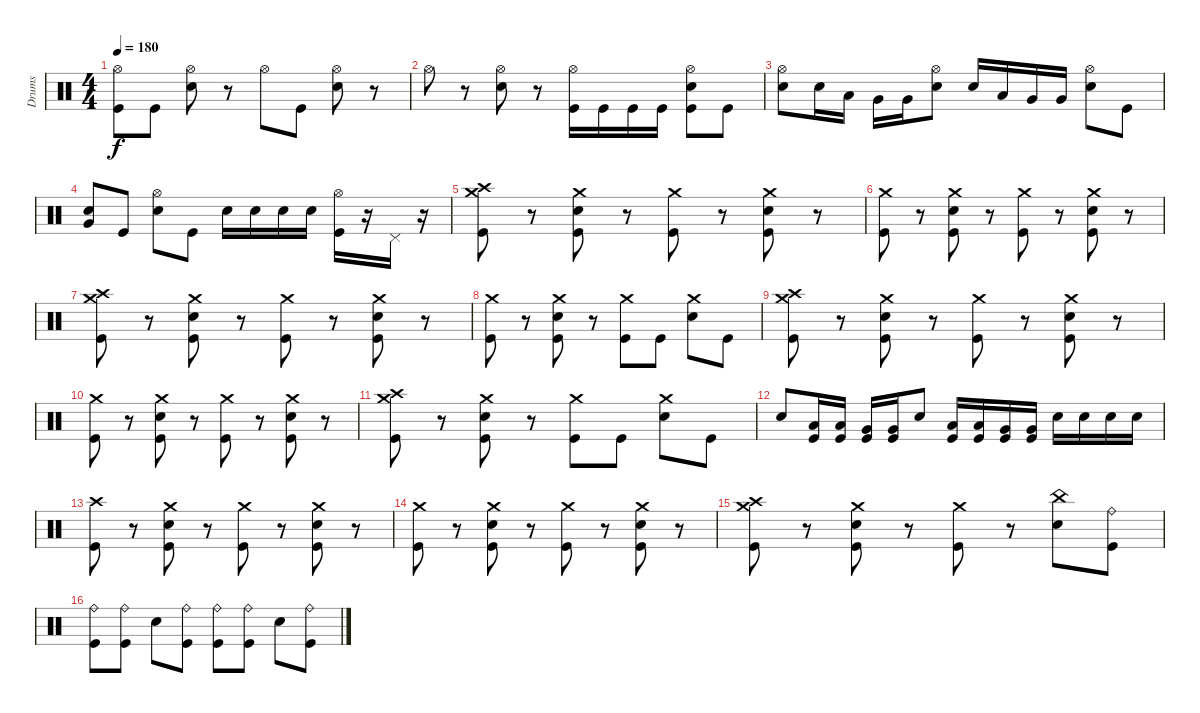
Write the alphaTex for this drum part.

\track ("Drums" "Drums") {instrument percussion}
\staff {score}
\articulation defaults
\ts (4 4)
\tempo 180
\clef neutral
\ks c
("Hi-Hat (open)" "Kick (hit)").8{dy f} "Kick (hit)".8 ("Hi-Hat (open)" "Snare (hit) 2").8 r.8 "Hi-Hat (open)".8 "Kick (hit)".8 ("Hi-Hat (open)" "Snare (hit) 2").8 r.8 |
"Hi-Hat (open)".8 r.8 ("Hi-Hat (open)" "Snare (hit) 2").8 r.8 ("Hi-Hat (open)" "Kick (hit)").16 "Kick (hit)".16 "Kick (hit)".16 "Kick (hit)".16 ("Hi-Hat (open)" "Snare (hit) 2" "Kick (hit)").8 "Kick (hit)".8 |
("Snare (hit) 2" "Hi-Hat (open)").8 "Snare (hit) 2".16 "Low Tom (hit)".16 "Very Low Tom (hit)".16 "Very Low Tom (hit)".16 ("Snare (hit) 2" "Hi-Hat (open)").8 "Snare (hit) 2".16 "Low Tom (hit)".16 "Very Low Tom (hit)".16 "Very Low Tom (hit)".16 ("Snare (hit) 2" "Hi-Hat (open)").8 "Kick (hit)".8 |
("Snare (hit) 2" "Very Low Tom (hit)").8 "Kick (hit)".8 ("Hi-Hat (open)" "Snare (hit) 2").8 "Kick (hit)".8 "Snare (hit) 2".16 "Snare (hit) 2".16 "Snare (hit) 2".16 "Snare (hit) 2".16 ("Hi-Hat (open)" "Kick (hit)").16 r.16 "Pedal Hi-Hat (hit)".16 r.16 |
("Crash high (hit)" "Crash medium (hit)" "Kick (hit)").8 r.8 ("Kick (hit)" "Snare (hit) 2" "Crash medium (hit)").8 r.8 ("Crash medium (hit)" "Kick (hit)").8 r.8 ("Crash medium (hit)" "Kick (hit)" "Snare (hit) 2").8 r.8 |
("Crash medium (hit)" "Kick (hit)").8 r.8 ("Kick (hit)" "Snare (hit) 2" "Crash medium (hit)").8 r.8 ("Crash medium (hit)" "Kick (hit)").8 r.8 ("Crash medium (hit)" "Kick (hit)" "Snare (hit) 2").8 r.8 |
("Crash high (hit)" "Crash medium (hit)" "Kick (hit)").8 r.8 ("Kick (hit)" "Snare (hit) 2" "Crash medium (hit)").8 r.8 ("Crash medium (hit)" "Kick (hit)").8 r.8 ("Crash medium (hit)" "Kick (hit)" "Snare (hit) 2").8 r.8 |
("Crash medium (hit)" "Kick (hit)").8 r.8 ("Kick (hit)" "Snare (hit) 2" "Crash medium (hit)").8 r.8 ("Crash medium (hit)" "Kick (hit)").8 "Kick (hit)".8 ("Crash medium (hit)" "Snare (hit) 2").8 "Kick (hit)".8 |
("Crash high (hit)" "Crash medium (hit)" "Kick (hit)").8 r.8 ("Kick (hit)" "Snare (hit) 2" "Crash medium (hit)").8 r.8 ("Crash medium (hit)" "Kick (hit)").8 r.8 ("Crash medium (hit)" "Kick (hit)" "Snare (hit) 2").8 r.8 |
("Crash medium (hit)" "Kick (hit)").8 r.8 ("Kick (hit)" "Snare (hit) 2" "Crash medium (hit)").8 r.8 ("Crash medium (hit)" "Kick (hit)").8 r.8 ("Crash medium (hit)" "Kick (hit)" "Snare (hit) 2").8 r.8 |
("Crash high (hit)" "Crash medium (hit)" "Kick (hit)").8 r.8 ("Kick (hit)" "Snare (hit) 2" "Crash medium (hit)").8 r.8 ("Crash medium (hit)" "Kick (hit)").8 "Kick (hit)".8 ("Crash medium (hit)" "Snare (hit) 2").8 "Kick (hit)".8 |
"Snare (hit) 2".8 ("Low Tom (hit)" "Kick (hit)").16 ("Low Tom (hit)" "Kick (hit)").16 ("Very Low Tom (hit)" "Kick (hit)").16 ("Very Low Tom (hit)" "Kick (hit)").16 "Snare (hit) 2".8 ("Low Tom (hit)" "Kick (hit)").16 ("Low Tom (hit)" "Kick (hit)").16 ("Very Low Tom (hit)" "Kick (hit)").16 ("Very Low Tom (hit)" "Kick (hit)").16 "Snare (hit) 2".16 "Snare (hit) 2".16 "Snare (hit) 2".16 "Snare (hit) 2".16 |
("Crash high (hit)" "Kick (hit)").8 r.8 ("Kick (hit)" "Snare (hit) 2" "Crash medium (hit)").8 r.8 ("Crash medium (hit)" "Kick (hit)").8 r.8 ("Crash medium (hit)" "Kick (hit)" "Snare (hit) 2").8 r.8 |
("Crash medium (hit)" "Kick (hit)").8 r.8 ("Kick (hit)" "Snare (hit) 2" "Crash medium (hit)").8 r.8 ("Crash medium (hit)" "Kick (hit)").8 r.8 ("Crash medium (hit)" "Kick (hit)" "Snare (hit) 2").8 r.8 |
("Crash high (hit)" "Crash medium (hit)" "Kick (hit)").8 r.8 ("Kick (hit)" "Snare (hit) 2" "Crash medium (hit)").8 r.8 ("Crash medium (hit)" "Kick (hit)").8 r.8 ("China (hit)" "Snare (hit) 2").8 ("Ride (bell)" "Kick (hit)").8 |
("Kick (hit)" "Ride (bell)").8 ("Kick (hit)" "Ride (bell)").8 "Snare (hit) 2".8 ("Kick (hit)" "Ride (bell)").8 ("Kick (hit)" "Ride (bell)").8 ("Kick (hit)" "Ride (bell)").8 "Snare (hit) 2".8 ("Kick (hit)" "Ride (bell)").8
